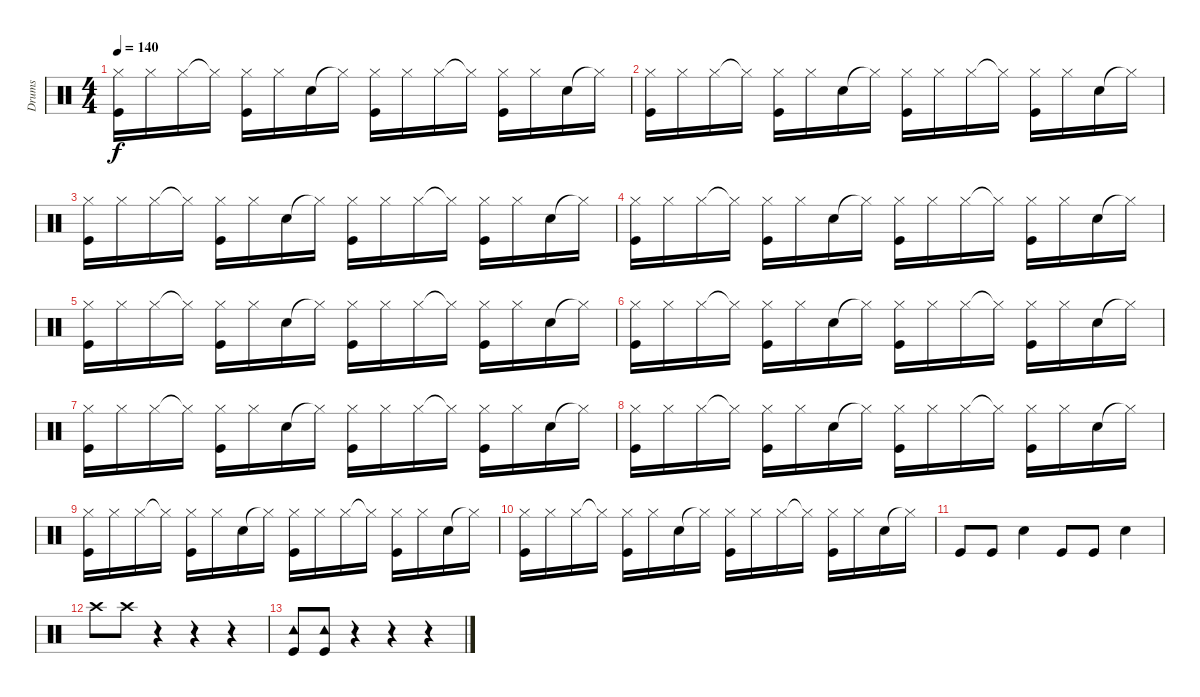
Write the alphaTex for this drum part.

\track ("Drums" "Drums") {instrument percussion}
\staff {score}
\articulation defaults
\ts (4 4)
\tempo 140
\clef neutral
\ks c
("Hi-Hat (closed)" "Kick (hit)").16{dy f} "Hi-Hat (closed)".16 "Hi-Hat (closed)".16 "Hi-Hat (closed)"{t}.16 ("Hi-Hat (closed)" "Kick (hit)").16 "Hi-Hat (closed)".16 "Snare (hit) 2".16 "Hi-Hat (closed)"{t}.16 ("Hi-Hat (closed)" "Kick (hit)").16 "Hi-Hat (closed)".16 "Hi-Hat (closed)".16 "Hi-Hat (closed)"{t}.16 ("Hi-Hat (closed)" "Kick (hit)").16 "Hi-Hat (closed)".16 "Snare (hit) 2".16 "Hi-Hat (closed)"{t}.16 |
("Hi-Hat (closed)" "Kick (hit)").16 "Hi-Hat (closed)".16 "Hi-Hat (closed)".16 "Hi-Hat (closed)"{t}.16 ("Hi-Hat (closed)" "Kick (hit)").16 "Hi-Hat (closed)".16 "Snare (hit) 2".16 "Hi-Hat (closed)"{t}.16 ("Hi-Hat (closed)" "Kick (hit)").16 "Hi-Hat (closed)".16 "Hi-Hat (closed)".16 "Hi-Hat (closed)"{t}.16 ("Hi-Hat (closed)" "Kick (hit)").16 "Hi-Hat (closed)".16 "Snare (hit) 2".16 "Hi-Hat (closed)"{t}.16 |
("Hi-Hat (closed)" "Kick (hit)").16 "Hi-Hat (closed)".16 "Hi-Hat (closed)".16 "Hi-Hat (closed)"{t}.16 ("Hi-Hat (closed)" "Kick (hit)").16 "Hi-Hat (closed)".16 "Snare (hit) 2".16 "Hi-Hat (closed)"{t}.16 ("Hi-Hat (closed)" "Kick (hit)").16 "Hi-Hat (closed)".16 "Hi-Hat (closed)".16 "Hi-Hat (closed)"{t}.16 ("Hi-Hat (closed)" "Kick (hit)").16 "Hi-Hat (closed)".16 "Snare (hit) 2".16 "Hi-Hat (closed)"{t}.16 |
("Hi-Hat (closed)" "Kick (hit)").16 "Hi-Hat (closed)".16 "Hi-Hat (closed)".16 "Hi-Hat (closed)"{t}.16 ("Hi-Hat (closed)" "Kick (hit)").16 "Hi-Hat (closed)".16 "Snare (hit) 2".16 "Hi-Hat (closed)"{t}.16 ("Hi-Hat (closed)" "Kick (hit)").16 "Hi-Hat (closed)".16 "Hi-Hat (closed)".16 "Hi-Hat (closed)"{t}.16 ("Hi-Hat (closed)" "Kick (hit)").16 "Hi-Hat (closed)".16 "Snare (hit) 2".16 "Hi-Hat (closed)"{t}.16 |
("Hi-Hat (closed)" "Kick (hit)").16 "Hi-Hat (closed)".16 "Hi-Hat (closed)".16 "Hi-Hat (closed)"{t}.16 ("Hi-Hat (closed)" "Kick (hit)").16 "Hi-Hat (closed)".16 "Snare (hit) 2".16 "Hi-Hat (closed)"{t}.16 ("Hi-Hat (closed)" "Kick (hit)").16 "Hi-Hat (closed)".16 "Hi-Hat (closed)".16 "Hi-Hat (closed)"{t}.16 ("Hi-Hat (closed)" "Kick (hit)").16 "Hi-Hat (closed)".16 "Snare (hit) 2".16 "Hi-Hat (closed)"{t}.16 |
("Hi-Hat (closed)" "Kick (hit)").16 "Hi-Hat (closed)".16 "Hi-Hat (closed)".16 "Hi-Hat (closed)"{t}.16 ("Hi-Hat (closed)" "Kick (hit)").16 "Hi-Hat (closed)".16 "Snare (hit) 2".16 "Hi-Hat (closed)"{t}.16 ("Hi-Hat (closed)" "Kick (hit)").16 "Hi-Hat (closed)".16 "Hi-Hat (closed)".16 "Hi-Hat (closed)"{t}.16 ("Hi-Hat (closed)" "Kick (hit)").16 "Hi-Hat (closed)".16 "Snare (hit) 2".16 "Hi-Hat (closed)"{t}.16 |
("Hi-Hat (closed)" "Kick (hit)").16 "Hi-Hat (closed)".16 "Hi-Hat (closed)".16 "Hi-Hat (closed)"{t}.16 ("Hi-Hat (closed)" "Kick (hit)").16 "Hi-Hat (closed)".16 "Snare (hit) 2".16 "Hi-Hat (closed)"{t}.16 ("Hi-Hat (closed)" "Kick (hit)").16 "Hi-Hat (closed)".16 "Hi-Hat (closed)".16 "Hi-Hat (closed)"{t}.16 ("Hi-Hat (closed)" "Kick (hit)").16 "Hi-Hat (closed)".16 "Snare (hit) 2".16 "Hi-Hat (closed)"{t}.16 |
("Hi-Hat (closed)" "Kick (hit)").16 "Hi-Hat (closed)".16 "Hi-Hat (closed)".16 "Hi-Hat (closed)"{t}.16 ("Hi-Hat (closed)" "Kick (hit)").16 "Hi-Hat (closed)".16 "Snare (hit) 2".16 "Hi-Hat (closed)"{t}.16 ("Hi-Hat (closed)" "Kick (hit)").16 "Hi-Hat (closed)".16 "Hi-Hat (closed)".16 "Hi-Hat (closed)"{t}.16 ("Hi-Hat (closed)" "Kick (hit)").16 "Hi-Hat (closed)".16 "Snare (hit) 2".16 "Hi-Hat (closed)"{t}.16 |
("Hi-Hat (closed)" "Kick (hit)").16 "Hi-Hat (closed)".16 "Hi-Hat (closed)".16 "Hi-Hat (closed)"{t}.16 ("Hi-Hat (closed)" "Kick (hit)").16 "Hi-Hat (closed)".16 "Snare (hit) 2".16 "Hi-Hat (closed)"{t}.16 ("Hi-Hat (closed)" "Kick (hit)").16 "Hi-Hat (closed)".16 "Hi-Hat (closed)".16 "Hi-Hat (closed)"{t}.16 ("Hi-Hat (closed)" "Kick (hit)").16 "Hi-Hat (closed)".16 "Snare (hit) 2".16 "Hi-Hat (closed)"{t}.16 |
("Hi-Hat (closed)" "Kick (hit)").16 "Hi-Hat (closed)".16 "Hi-Hat (closed)".16 "Hi-Hat (closed)"{t}.16 ("Hi-Hat (closed)" "Kick (hit)").16 "Hi-Hat (closed)".16 "Snare (hit) 2".16 "Hi-Hat (closed)"{t}.16 ("Hi-Hat (closed)" "Kick (hit)").16 "Hi-Hat (closed)".16 "Hi-Hat (closed)".16 "Hi-Hat (closed)"{t}.16 ("Hi-Hat (closed)" "Kick (hit)").16 "Hi-Hat (closed)".16 "Snare (hit) 2".16 "Hi-Hat (closed)"{t}.16 |
"Kick (hit)".8 "Kick (hit)".8 "Snare (hit) 2".4 "Kick (hit)".8 "Kick (hit)".8 "Snare (hit) 2".4 |
"Crash high (hit)".8 "Crash high (hit)".8 r.4 r.4 r.4 |
("Tambourine (hit)" "Kick (hit)").8 ("Tambourine (hit)" "Kick (hit)").8 r.4 r.4 r.4
